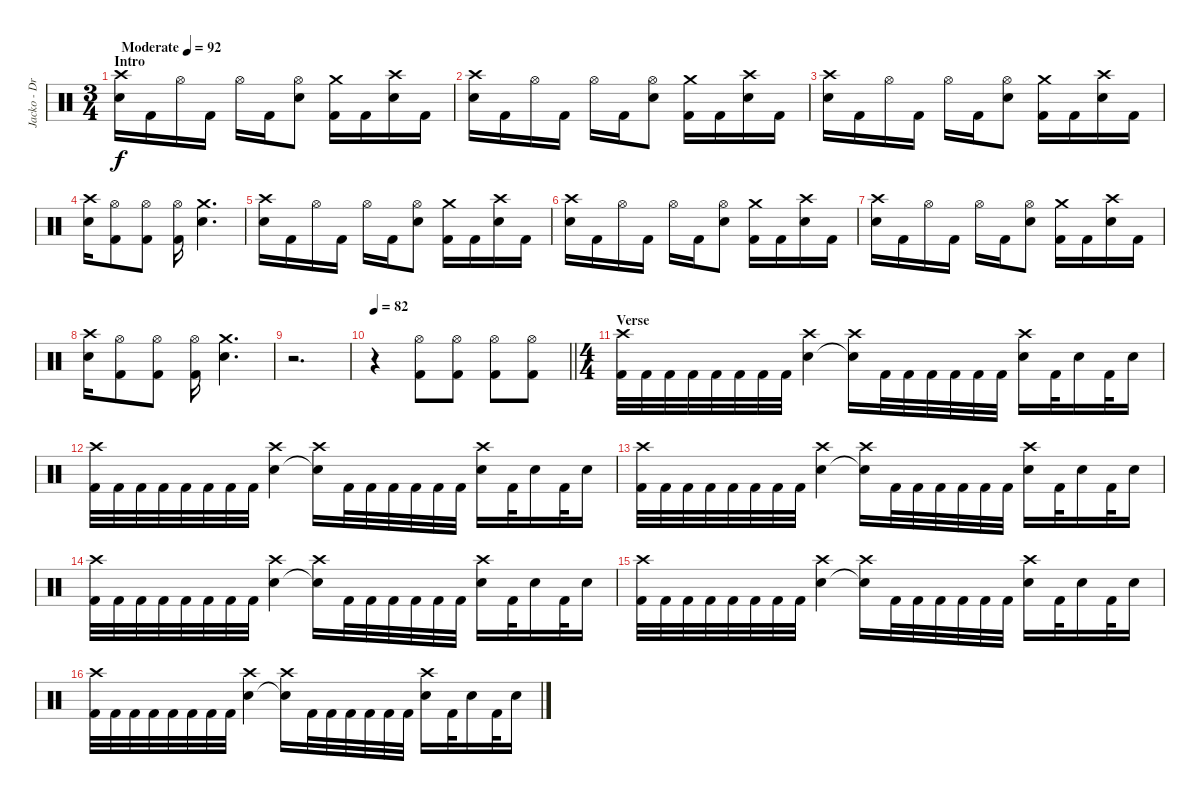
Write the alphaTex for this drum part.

\track ("Jacko - Drums" "Jacko - Dr") {instrument percussion}
\staff {score}
\articulation defaults
\ts (3 4)
\section ("" "Intro")
\tempo (92 "Moderate")
\clef neutral
\ks c
("Crash high (hit)" "Snare (hit) 2").16{dy f} "Kick (hit) 2".16 "Hi-Hat (open)".16 "Kick (hit) 2".16 "Hi-Hat (open)".16 "Kick (hit) 2".16 ("Hi-Hat (open)" "Snare (hit) 2").8 ("Crash medium (hit)" "Kick (hit) 2").16 "Kick (hit) 2".16 ("Crash high (hit)" "Snare (hit) 2").16 "Kick (hit) 2".16 |
("Crash high (hit)" "Snare (hit) 2").16 "Kick (hit) 2".16 "Hi-Hat (open)".16 "Kick (hit) 2".16 "Hi-Hat (open)".16 "Kick (hit) 2".16 ("Hi-Hat (open)" "Snare (hit) 2").8 ("Crash medium (hit)" "Kick (hit) 2").16 "Kick (hit) 2".16 ("Crash high (hit)" "Snare (hit) 2").16 "Kick (hit) 2".16 |
("Crash high (hit)" "Snare (hit) 2").16 "Kick (hit) 2".16 "Hi-Hat (open)".16 "Kick (hit) 2".16 "Hi-Hat (open)".16 "Kick (hit) 2".16 ("Hi-Hat (open)" "Snare (hit) 2").8 ("Crash medium (hit)" "Kick (hit) 2").16 "Kick (hit) 2".16 ("Crash high (hit)" "Snare (hit) 2").16 "Kick (hit) 2".16 |
("Crash high (hit)" "Snare (hit) 2").16 ("Hi-Hat (open)" "Kick (hit) 2").8 ("Hi-Hat (open)" "Kick (hit) 2").8 ("Hi-Hat (open)" "Kick (hit) 2").16 ("Crash medium (hit)" "Snare (hit) 2").4{d} |
("Crash high (hit)" "Snare (hit) 2").16 "Kick (hit) 2".16 "Hi-Hat (open)".16 "Kick (hit) 2".16 "Hi-Hat (open)".16 "Kick (hit) 2".16 ("Hi-Hat (open)" "Snare (hit) 2").8 ("Crash medium (hit)" "Kick (hit) 2").16 "Kick (hit) 2".16 ("Crash high (hit)" "Snare (hit) 2").16 "Kick (hit) 2".16 |
("Crash high (hit)" "Snare (hit) 2").16 "Kick (hit) 2".16 "Hi-Hat (open)".16 "Kick (hit) 2".16 "Hi-Hat (open)".16 "Kick (hit) 2".16 ("Hi-Hat (open)" "Snare (hit) 2").8 ("Crash medium (hit)" "Kick (hit) 2").16 "Kick (hit) 2".16 ("Crash high (hit)" "Snare (hit) 2").16 "Kick (hit) 2".16 |
("Crash high (hit)" "Snare (hit) 2").16 "Kick (hit) 2".16 "Hi-Hat (open)".16 "Kick (hit) 2".16 "Hi-Hat (open)".16 "Kick (hit) 2".16 ("Hi-Hat (open)" "Snare (hit) 2").8 ("Crash medium (hit)" "Kick (hit) 2").16 "Kick (hit) 2".16 ("Crash high (hit)" "Snare (hit) 2").16 "Kick (hit) 2".16 |
("Crash high (hit)" "Snare (hit) 2").16 ("Hi-Hat (open)" "Kick (hit) 2").8 ("Hi-Hat (open)" "Kick (hit) 2").8 ("Hi-Hat (open)" "Kick (hit) 2").16 ("Crash medium (hit)" "Snare (hit) 2").4{d} |
r.2{d} |
\tempo 82
\barLineRight lightlight
r.4 ("Hi-Hat (open)" "Kick (hit) 2").8 ("Hi-Hat (open)" "Kick (hit) 2").8 ("Hi-Hat (open)" "Kick (hit) 2").8 ("Hi-Hat (open)" "Kick (hit) 2").8 |
\ts (4 4)
\section ("" "Verse")
("Crash high (hit)" "Kick (hit) 2").32 "Kick (hit) 2".32 "Kick (hit) 2".32 "Kick (hit) 2".32 "Kick (hit) 2".32 "Kick (hit) 2".32 "Kick (hit) 2".32 "Kick (hit) 2".32 ("Crash high (hit)" "Snare (hit) 2").4 ("Crash high (hit)" "Snare (hit)"{t}).16 "Kick (hit) 2".32 "Kick (hit) 2".32 "Kick (hit) 2".32 "Kick (hit) 2".32 "Kick (hit) 2".32 "Kick (hit) 2".32 ("Crash high (hit)" "Snare (hit) 2").16 "Kick (hit) 2".32 "Snare (hit) 2".16 "Kick (hit) 2".32 "Snare (hit) 2".16 |
("Crash high (hit)" "Kick (hit) 2").32 "Kick (hit) 2".32 "Kick (hit) 2".32 "Kick (hit) 2".32 "Kick (hit) 2".32 "Kick (hit) 2".32 "Kick (hit) 2".32 "Kick (hit) 2".32 ("Crash high (hit)" "Snare (hit) 2").4 ("Crash high (hit)" "Snare (hit)"{t}).16 "Kick (hit) 2".32 "Kick (hit) 2".32 "Kick (hit) 2".32 "Kick (hit) 2".32 "Kick (hit) 2".32 "Kick (hit) 2".32 ("Crash high (hit)" "Snare (hit) 2").16 "Kick (hit) 2".32 "Snare (hit) 2".16 "Kick (hit) 2".32 "Snare (hit) 2".16 |
("Crash high (hit)" "Kick (hit) 2").32 "Kick (hit) 2".32 "Kick (hit) 2".32 "Kick (hit) 2".32 "Kick (hit) 2".32 "Kick (hit) 2".32 "Kick (hit) 2".32 "Kick (hit) 2".32 ("Crash high (hit)" "Snare (hit) 2").4 ("Crash high (hit)" "Snare (hit)"{t}).16 "Kick (hit) 2".32 "Kick (hit) 2".32 "Kick (hit) 2".32 "Kick (hit) 2".32 "Kick (hit) 2".32 "Kick (hit) 2".32 ("Crash high (hit)" "Snare (hit) 2").16 "Kick (hit) 2".32 "Snare (hit) 2".16 "Kick (hit) 2".32 "Snare (hit) 2".16 |
("Crash high (hit)" "Kick (hit) 2").32 "Kick (hit) 2".32 "Kick (hit) 2".32 "Kick (hit) 2".32 "Kick (hit) 2".32 "Kick (hit) 2".32 "Kick (hit) 2".32 "Kick (hit) 2".32 ("Crash high (hit)" "Snare (hit) 2").4 ("Crash high (hit)" "Snare (hit)"{t}).16 "Kick (hit) 2".32 "Kick (hit) 2".32 "Kick (hit) 2".32 "Kick (hit) 2".32 "Kick (hit) 2".32 "Kick (hit) 2".32 ("Crash high (hit)" "Snare (hit) 2").16 "Kick (hit) 2".32 "Snare (hit) 2".16 "Kick (hit) 2".32 "Snare (hit) 2".16 |
("Crash high (hit)" "Kick (hit) 2").32 "Kick (hit) 2".32 "Kick (hit) 2".32 "Kick (hit) 2".32 "Kick (hit) 2".32 "Kick (hit) 2".32 "Kick (hit) 2".32 "Kick (hit) 2".32 ("Crash high (hit)" "Snare (hit) 2").4 ("Crash high (hit)" "Snare (hit)"{t}).16 "Kick (hit) 2".32 "Kick (hit) 2".32 "Kick (hit) 2".32 "Kick (hit) 2".32 "Kick (hit) 2".32 "Kick (hit) 2".32 ("Crash high (hit)" "Snare (hit) 2").16 "Kick (hit) 2".32 "Snare (hit) 2".16 "Kick (hit) 2".32 "Snare (hit) 2".16 |
("Crash high (hit)" "Kick (hit) 2").32 "Kick (hit) 2".32 "Kick (hit) 2".32 "Kick (hit) 2".32 "Kick (hit) 2".32 "Kick (hit) 2".32 "Kick (hit) 2".32 "Kick (hit) 2".32 ("Crash high (hit)" "Snare (hit) 2").4 ("Crash high (hit)" "Snare (hit)"{t}).16 "Kick (hit) 2".32 "Kick (hit) 2".32 "Kick (hit) 2".32 "Kick (hit) 2".32 "Kick (hit) 2".32 "Kick (hit) 2".32 ("Crash high (hit)" "Snare (hit) 2").16 "Kick (hit) 2".32 "Snare (hit) 2".16 "Kick (hit) 2".32 "Snare (hit) 2".16
